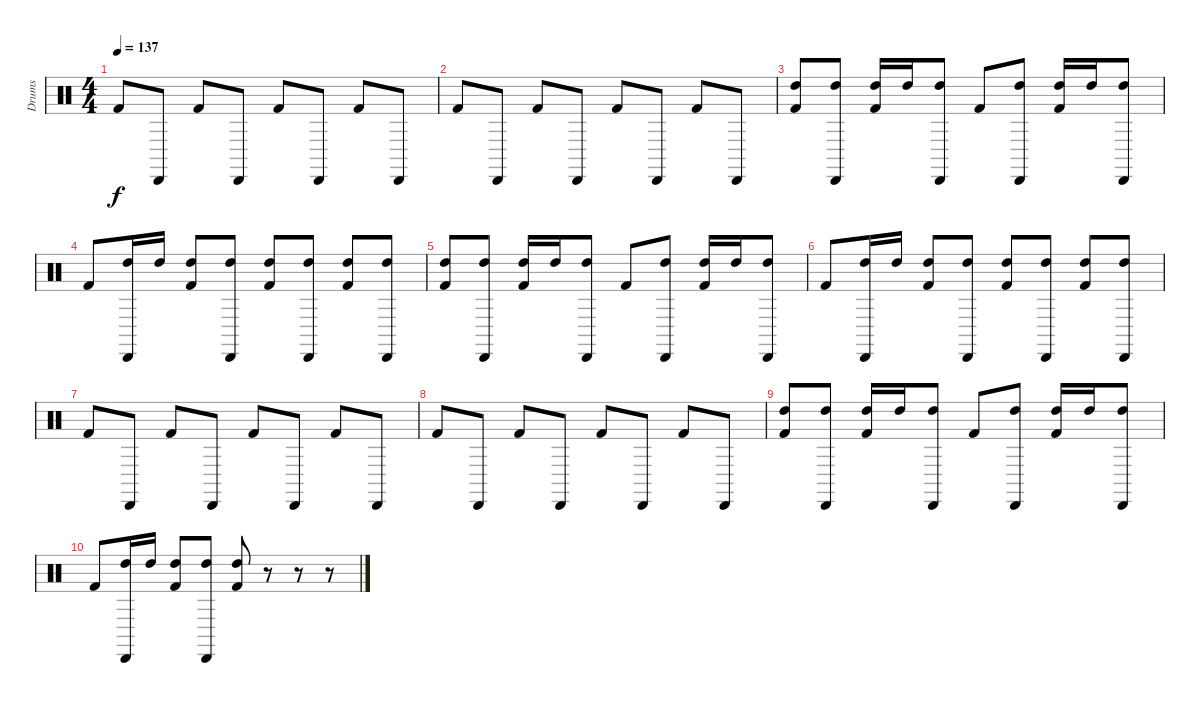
\track ("Drums" "Drums") {instrument percussion}
\staff {score}
\articulation defaults
\ts (4 4)
\tempo 137
\clef neutral
\ks c "Kick (hit) 2".8{dy f} "Cabasa (hit)".8 "Kick (hit) 2".8 "Cabasa (hit)".8 "Kick (hit) 2".8 "Cabasa (hit)".8 "Kick (hit) 2".8 "Cabasa (hit)".8
|
"Kick (hit) 2".8 "Cabasa (hit)".8 "Kick (hit) 2".8 "Cabasa (hit)".8 "Kick (hit) 2".8 "Cabasa (hit)".8 "Kick (hit) 2".8 "Cabasa (hit)".8 |
("High Tom (hit)" "Kick (hit) 2").8 ("High Tom (hit)" "Cabasa (hit)").8 ("High Tom (hit)" "Kick (hit) 2").16 "High Tom (hit)".16 ("High Tom (hit)" "Cabasa (hit)").8 "Kick (hit) 2".8 ("High Tom (hit)" "Cabasa (hit)").8 ("High Tom (hit)" "Kick (hit) 2").16 "High Tom (hit)".16 ("High Tom (hit)" "Cabasa (hit)").8 |
"Kick (hit) 2".8 ("High Tom (hit)" "Cabasa (hit)").16 "High Tom (hit)".16 ("High Tom (hit)" "Kick (hit) 2").8 ("High Tom (hit)" "Cabasa (hit)").8 ("High Tom (hit)" "Kick (hit) 2").8 ("High Tom (hit)" "Cabasa (hit)").8 ("High Tom (hit)" "Kick (hit) 2").8 ("High Tom (hit)" "Cabasa (hit)").8 |
("High Tom (hit)" "Kick (hit) 2").8 ("High Tom (hit)" "Cabasa (hit)").8 ("High Tom (hit)" "Kick (hit) 2").16 "High Tom (hit)".16 ("High Tom (hit)" "Cabasa (hit)").8 "Kick (hit) 2".8 ("High Tom (hit)" "Cabasa (hit)").8 ("High Tom (hit)" "Kick (hit) 2").16 "High Tom (hit)".16 ("High Tom (hit)" "Cabasa (hit)").8 |
"Kick (hit) 2".8 ("High Tom (hit)" "Cabasa (hit)").16 "High Tom (hit)".16 ("High Tom (hit)" "Kick (hit) 2").8 ("High Tom (hit)" "Cabasa (hit)").8 ("High Tom (hit)" "Kick (hit) 2").8 ("High Tom (hit)" "Cabasa (hit)").8 ("High Tom (hit)" "Kick (hit) 2").8 ("High Tom (hit)" "Cabasa (hit)").8 |
"Kick (hit) 2".8 "Cabasa (hit)".8 "Kick (hit) 2".8 "Cabasa (hit)".8 "Kick (hit) 2".8 "Cabasa (hit)".8 "Kick (hit) 2".8 "Cabasa (hit)".8 |
"Kick (hit) 2".8 "Cabasa (hit)".8 "Kick (hit) 2".8 "Cabasa (hit)".8 "Kick (hit) 2".8 "Cabasa (hit)".8 "Kick (hit) 2".8 "Cabasa (hit)".8 |
("High Tom (hit)" "Kick (hit) 2").8 ("High Tom (hit)" "Cabasa (hit)").8 ("High Tom (hit)" "Kick (hit) 2").16 "High Tom (hit)".16 ("High Tom (hit)" "Cabasa (hit)").8 "Kick (hit) 2".8 ("High Tom (hit)" "Cabasa (hit)").8 ("High Tom (hit)" "Kick (hit) 2").16 "High Tom (hit)".16 ("High Tom (hit)" "Cabasa (hit)").8 |
"Kick (hit) 2".8 ("High Tom (hit)" "Cabasa (hit)").16 "High Tom (hit)".16 ("High Tom (hit)" "Kick (hit) 2").8 ("High Tom (hit)" "Cabasa (hit)").8 ("High Tom (hit)" "Kick (hit) 2").8 r.8 r.8 r.8
